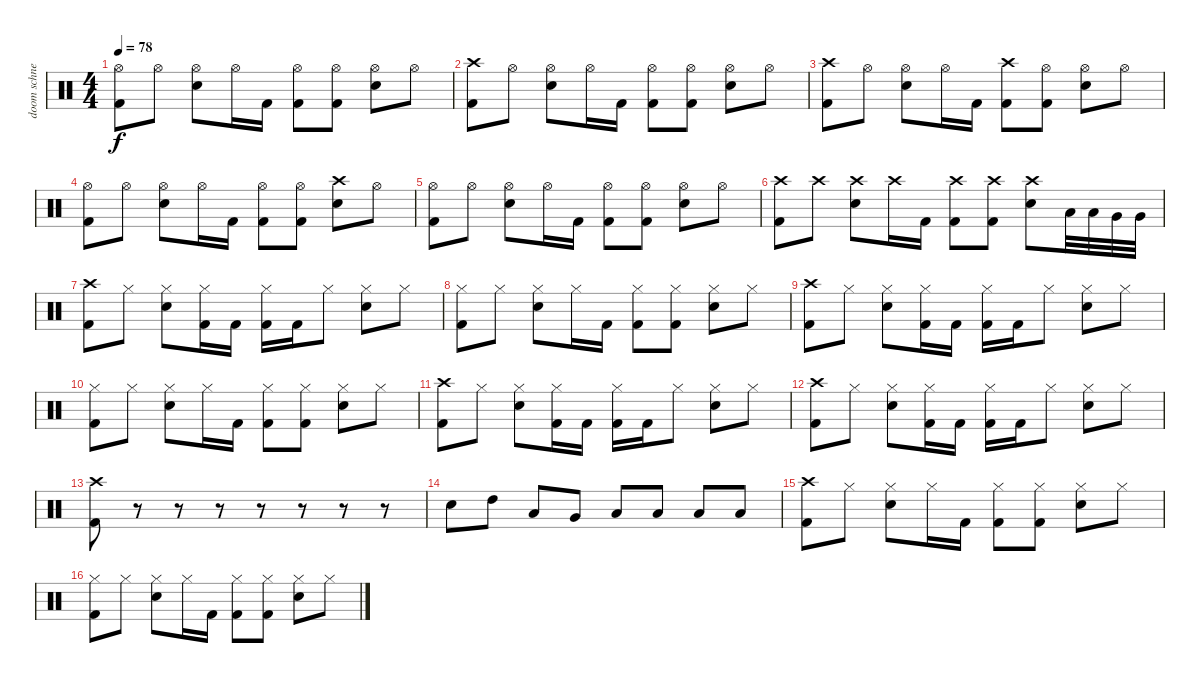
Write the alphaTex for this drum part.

\track ("doom schneider" "doom schne") {instrument percussion}
\staff {score}
\articulation defaults
\ts (4 4)
\tempo 78
\clef neutral
\ks c
("Hi-Hat (open)" "Kick (hit) 2").8{dy f} "Hi-Hat (open)".8 ("Hi-Hat (open)" "Snare (hit) 2").8 "Hi-Hat (open)".16 "Kick (hit) 2".16 ("Hi-Hat (open)" "Kick (hit) 2").8 ("Hi-Hat (open)" "Kick (hit) 2").8 ("Hi-Hat (open)" "Snare (hit) 2").8 "Hi-Hat (open)".8 |
("Crash high (hit)" "Kick (hit) 2").8 "Hi-Hat (open)".8 ("Hi-Hat (open)" "Snare (hit) 2").8 "Hi-Hat (open)".16 "Kick (hit) 2".16 ("Hi-Hat (open)" "Kick (hit) 2").8 ("Hi-Hat (open)" "Kick (hit) 2").8 ("Hi-Hat (open)" "Snare (hit) 2").8 "Hi-Hat (open)".8 |
("Crash high (hit)" "Kick (hit) 2").8 "Hi-Hat (open)".8 ("Hi-Hat (open)" "Snare (hit) 2").8 "Hi-Hat (open)".16 "Kick (hit) 2".16 ("Crash high (hit)" "Kick (hit) 2").8 ("Hi-Hat (open)" "Kick (hit) 2").8 ("Hi-Hat (open)" "Snare (hit) 2").8 "Hi-Hat (open)".8 |
("Hi-Hat (open)" "Kick (hit) 2").8 "Hi-Hat (open)".8 ("Hi-Hat (open)" "Snare (hit) 2").8 "Hi-Hat (open)".16 "Kick (hit) 2".16 ("Hi-Hat (open)" "Kick (hit) 2").8 ("Hi-Hat (open)" "Kick (hit) 2").8 ("Crash high (hit)" "Snare (hit) 2").8 "Hi-Hat (open)".8 |
("Hi-Hat (open)" "Kick (hit) 2").8 "Hi-Hat (open)".8 ("Hi-Hat (open)" "Snare (hit) 2").8 "Hi-Hat (open)".16 "Kick (hit) 2".16 ("Hi-Hat (open)" "Kick (hit) 2").8 ("Hi-Hat (open)" "Kick (hit) 2").8 ("Hi-Hat (open)" "Snare (hit) 2").8 "Hi-Hat (open)".8 |
("Crash high (hit)" "Kick (hit) 2").8 "Crash high (hit)".8 ("Crash high (hit)" "Snare (hit) 2").8 "Crash high (hit)".16 "Kick (hit) 2".16 ("Crash high (hit)" "Kick (hit) 2").8 ("Crash high (hit)" "Kick (hit) 2").8 ("Crash high (hit)" "Snare (hit) 2").8 "Low Tom (hit)".32 "Low Tom (hit)".32 "Very Low Tom (hit)".32 "Very Low Tom (hit)".32 |
("Crash high (hit)" "Kick (hit) 2").8 "Hi-Hat (closed)".8 ("Hi-Hat (closed)" "Snare (hit) 2").8 ("Hi-Hat (closed)" "Kick (hit) 2").16 "Kick (hit) 2".16 ("Hi-Hat (closed)" "Kick (hit) 2").16 "Kick (hit) 2".16 "Hi-Hat (closed)".8 ("Hi-Hat (closed)" "Snare (hit) 2").8 "Hi-Hat (closed)".8 |
("Hi-Hat (closed)" "Kick (hit) 2").8 "Hi-Hat (closed)".8 ("Hi-Hat (closed)" "Snare (hit) 2").8 "Hi-Hat (closed)".16 "Kick (hit) 2".16 ("Hi-Hat (closed)" "Kick (hit) 2").8 ("Hi-Hat (closed)" "Kick (hit) 2").8 ("Hi-Hat (closed)" "Snare (hit) 2").8 "Hi-Hat (closed)".8 |
("Crash high (hit)" "Kick (hit) 2").8 "Hi-Hat (closed)".8 ("Hi-Hat (closed)" "Snare (hit) 2").8 ("Hi-Hat (closed)" "Kick (hit) 2").16 "Kick (hit) 2".16 ("Hi-Hat (closed)" "Kick (hit) 2").16 "Kick (hit) 2".16 "Hi-Hat (closed)".8 ("Hi-Hat (closed)" "Snare (hit) 2").8 "Hi-Hat (closed)".8 |
("Hi-Hat (closed)" "Kick (hit) 2").8 "Hi-Hat (closed)".8 ("Hi-Hat (closed)" "Snare (hit) 2").8 "Hi-Hat (closed)".16 "Kick (hit) 2".16 ("Hi-Hat (closed)" "Kick (hit) 2").8 ("Hi-Hat (closed)" "Kick (hit) 2").8 ("Hi-Hat (closed)" "Snare (hit) 2").8 "Hi-Hat (closed)".8 |
("Crash high (hit)" "Kick (hit) 2").8 "Hi-Hat (closed)".8 ("Hi-Hat (closed)" "Snare (hit) 2").8 ("Hi-Hat (closed)" "Kick (hit) 2").16 "Kick (hit) 2".16 ("Hi-Hat (closed)" "Kick (hit) 2").16 "Kick (hit) 2".16 "Hi-Hat (closed)".8 ("Hi-Hat (closed)" "Snare (hit) 2").8 "Hi-Hat (closed)".8 |
("Crash high (hit)" "Kick (hit) 2").8 "Hi-Hat (closed)".8 ("Hi-Hat (closed)" "Snare (hit) 2").8 ("Hi-Hat (closed)" "Kick (hit) 2").16 "Kick (hit) 2".16 ("Hi-Hat (closed)" "Kick (hit) 2").16 "Kick (hit) 2".16 "Hi-Hat (closed)".8 ("Hi-Hat (closed)" "Snare (hit) 2").8 "Hi-Hat (closed)".8 |
("Kick (hit) 2" "Crash high (hit)").8 r.8 r.8 r.8 r.8 r.8 r.8 r.8 |
"Snare (hit) 2".8 "High Tom (hit)".8 "Low Tom (hit)".8 "Very Low Tom (hit)".8 "Low Floor Tom (hit)".8 "Low Floor Tom (hit)".8 "Low Floor Tom (hit)".8 "Low Floor Tom (hit)".8 |
("Crash high (hit)" "Kick (hit) 2").8 "Hi-Hat (closed)".8 ("Hi-Hat (closed)" "Snare (hit) 2").8 "Hi-Hat (closed)".16 "Kick (hit) 2".16 ("Hi-Hat (closed)" "Kick (hit) 2").8 ("Hi-Hat (closed)" "Kick (hit) 2").8 ("Hi-Hat (closed)" "Snare (hit) 2").8 "Hi-Hat (closed)".8 |
("Hi-Hat (closed)" "Kick (hit) 2").8 "Hi-Hat (closed)".8 ("Hi-Hat (closed)" "Snare (hit) 2").8 "Hi-Hat (closed)".16 "Kick (hit) 2".16 ("Hi-Hat (closed)" "Kick (hit) 2").8 ("Hi-Hat (closed)" "Kick (hit) 2").8 ("Hi-Hat (closed)" "Snare (hit) 2").8 "Hi-Hat (closed)".8
